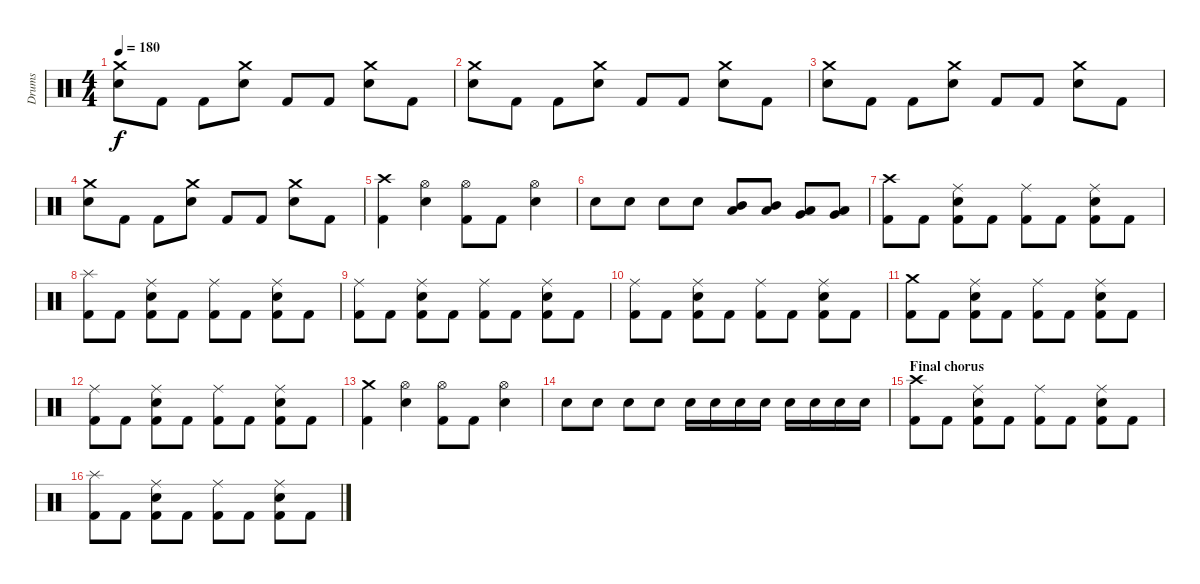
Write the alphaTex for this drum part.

\track ("Drums" "Drums") {instrument percussion}
\staff {score}
\articulation defaults
\ts (4 4)
\tempo 180
\clef neutral
\ks c
("Crash medium (hit)" "Electric Snare (hit)").8{dy f} "Kick (hit) 2".8 "Kick (hit) 2".8 ("Crash medium (hit)" "Electric Snare (hit)").8 "Kick (hit) 2".8 "Kick (hit) 2".8 ("Crash medium (hit)" "Electric Snare (hit)").8 "Kick (hit) 2".8 |
("Crash medium (hit)" "Electric Snare (hit)").8 "Kick (hit) 2".8 "Kick (hit) 2".8 ("Crash medium (hit)" "Electric Snare (hit)").8 "Kick (hit) 2".8 "Kick (hit) 2".8 ("Crash medium (hit)" "Electric Snare (hit)").8 "Kick (hit) 2".8 |
("Crash medium (hit)" "Electric Snare (hit)").8 "Kick (hit) 2".8 "Kick (hit) 2".8 ("Crash medium (hit)" "Electric Snare (hit)").8 "Kick (hit) 2".8 "Kick (hit) 2".8 ("Crash medium (hit)" "Electric Snare (hit)").8 "Kick (hit) 2".8 |
("Crash medium (hit)" "Electric Snare (hit)").8 "Kick (hit) 2".8 "Kick (hit) 2".8 ("Crash medium (hit)" "Electric Snare (hit)").8 "Kick (hit) 2".8 "Kick (hit) 2".8 ("Crash medium (hit)" "Electric Snare (hit)").8 "Kick (hit) 2".8 |
("Crash high (hit)" "Kick (hit) 2").4 ("Hi-Hat (open)" "Electric Snare (hit)").4 ("Hi-Hat (open)" "Kick (hit) 2").8 "Kick (hit) 2".8 ("Hi-Hat (open)" "Electric Snare (hit)").4 |
"Electric Snare (hit)".8 "Electric Snare (hit)".8 "Electric Snare (hit)".8 "Electric Snare (hit)".8 ("Mid Tom (hit)" "Low Tom (hit)").8 ("Mid Tom (hit)" "Low Tom (hit)").8 ("Low Tom (hit)" "Very Low Tom (hit)").8 ("Low Tom (hit)" "Very Low Tom (hit)").8 |
("Crash high (hit)" "Kick (hit) 2").8 "Kick (hit) 2".8 ("Ride (middle)" "Electric Snare (hit)" "Kick (hit) 2").8 "Kick (hit) 2".8 ("Ride (middle)" "Kick (hit) 2").8 "Kick (hit) 2".8 ("Ride (middle)" "Electric Snare (hit)" "Kick (hit) 2").8 "Kick (hit) 2".8 |
("Splash (hit)" "Kick (hit) 2").8 "Kick (hit) 2".8 ("Ride (middle)" "Electric Snare (hit)" "Kick (hit) 2").8 "Kick (hit) 2".8 ("Ride (middle)" "Kick (hit) 2").8 "Kick (hit) 2".8 ("Ride (middle)" "Electric Snare (hit)" "Kick (hit) 2").8 "Kick (hit) 2".8 |
("Ride (middle)" "Kick (hit) 2").8 "Kick (hit) 2".8 ("Ride (middle)" "Electric Snare (hit)" "Kick (hit) 2").8 "Kick (hit) 2".8 ("Ride (middle)" "Kick (hit) 2").8 "Kick (hit) 2".8 ("Ride (middle)" "Electric Snare (hit)" "Kick (hit) 2").8 "Kick (hit) 2".8 |
("Ride (middle)" "Kick (hit) 2").8 "Kick (hit) 2".8 ("Ride (middle)" "Electric Snare (hit)" "Kick (hit) 2").8 "Kick (hit) 2".8 ("Ride (middle)" "Kick (hit) 2").8 "Kick (hit) 2".8 ("Ride (middle)" "Electric Snare (hit)" "Kick (hit) 2").8 "Kick (hit) 2".8 |
("Crash medium (hit)" "Kick (hit) 2").8 "Kick (hit) 2".8 ("Ride (middle)" "Electric Snare (hit)" "Kick (hit) 2").8 "Kick (hit) 2".8 ("Ride (middle)" "Kick (hit) 2").8 "Kick (hit) 2".8 ("Ride (middle)" "Electric Snare (hit)" "Kick (hit) 2").8 "Kick (hit) 2".8 |
("Ride (middle)" "Kick (hit) 2").8 "Kick (hit) 2".8 ("Ride (middle)" "Electric Snare (hit)" "Kick (hit) 2").8 "Kick (hit) 2".8 ("Ride (middle)" "Kick (hit) 2").8 "Kick (hit) 2".8 ("Ride (middle)" "Electric Snare (hit)" "Kick (hit) 2").8 "Kick (hit) 2".8 |
("Crash medium (hit)" "Kick (hit) 2").4 ("Hi-Hat (open)" "Electric Snare (hit)").4 ("Hi-Hat (open)" "Kick (hit) 2").8 "Kick (hit) 2".8 ("Hi-Hat (open)" "Electric Snare (hit)").4 |
"Electric Snare (hit)".8 "Electric Snare (hit)".8 "Electric Snare (hit)".8 "Electric Snare (hit)".8 "Snare (hit) 2".16 "Snare (hit) 2".16 "Snare (hit) 2".16 "Snare (hit) 2".16 "Snare (hit) 2".16 "Snare (hit) 2".16 "Snare (hit) 2".16 "Electric Snare (hit)".16 |
\section ("" "Final chorus")
("Crash high (hit)" "Kick (hit) 2").8 "Kick (hit) 2".8 ("Ride (middle)" "Electric Snare (hit)" "Kick (hit) 2").8 "Kick (hit) 2".8 ("Ride (middle)" "Kick (hit) 2").8 "Kick (hit) 2".8 ("Ride (middle)" "Electric Snare (hit)" "Kick (hit) 2").8 "Kick (hit) 2".8 |
("Splash (hit)" "Kick (hit) 2").8 "Kick (hit) 2".8 ("Ride (middle)" "Electric Snare (hit)" "Kick (hit) 2").8 "Kick (hit) 2".8 ("Ride (middle)" "Kick (hit) 2").8 "Kick (hit) 2".8 ("Ride (middle)" "Electric Snare (hit)" "Kick (hit) 2").8 "Kick (hit) 2".8
